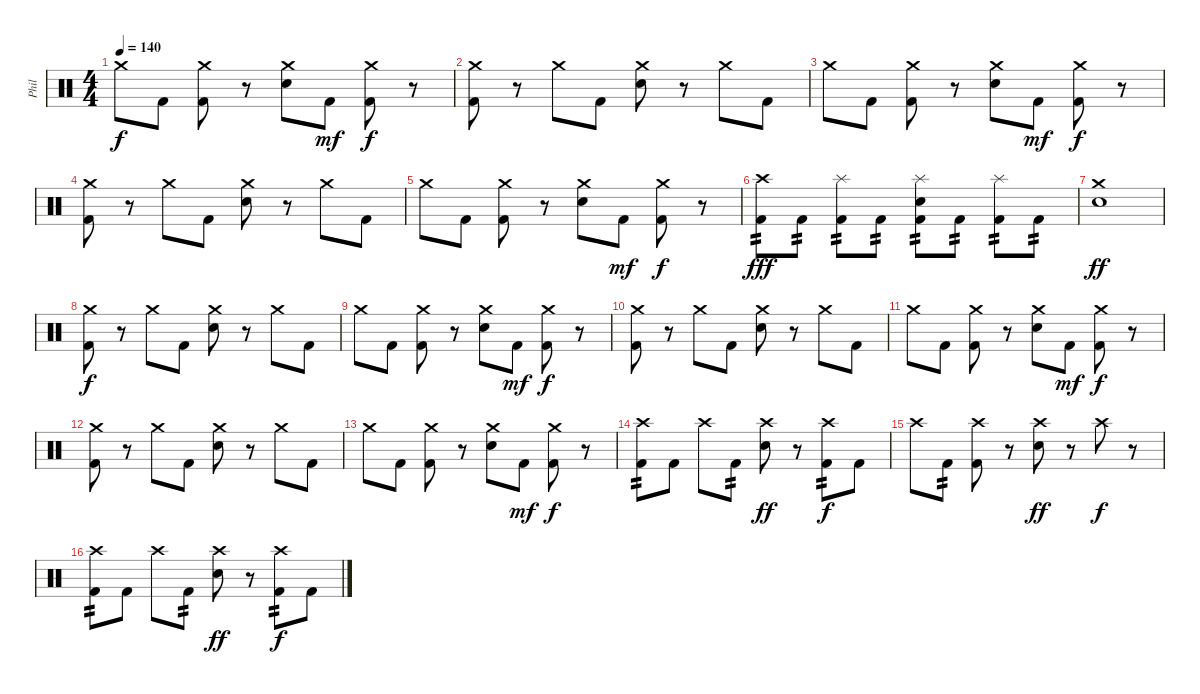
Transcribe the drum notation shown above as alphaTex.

\track ("Phil" "Phil") {instrument percussion}
\staff {score}
\articulation defaults
\ts (4 4)
\tempo 140
\clef neutral
\ks c "Crash medium (hit)".8{dy f} "Kick (hit) 2".8
("Crash medium (hit)" "Kick (hit) 2").8 r.8 ("Crash medium (hit)" "Snare (hit) 2").8 "Kick (hit) 2".8{dy mf} ("Crash medium (hit)" "Kick (hit) 2").8{dy f} r.8 |
("Crash medium (hit)" "Kick (hit) 2").8 r.8 "Crash medium (hit)".8 "Kick (hit) 2".8 ("Crash medium (hit)" "Snare (hit) 2").8 r.8 "Crash medium (hit)".8 "Kick (hit) 2".8 |
"Crash medium (hit)".8 "Kick (hit) 2".8 ("Crash medium (hit)" "Kick (hit) 2").8 r.8 ("Crash medium (hit)" "Snare (hit) 2").8 "Kick (hit) 2".8{dy mf} ("Crash medium (hit)" "Kick (hit) 2").8{dy f} r.8 |
("Crash medium (hit)" "Kick (hit) 2").8 r.8 "Crash medium (hit)".8 "Kick (hit) 2".8 ("Crash medium (hit)" "Snare (hit) 2").8 r.8 "Crash medium (hit)".8 "Kick (hit) 2".8 |
"Crash medium (hit)".8 "Kick (hit) 2".8 ("Crash medium (hit)" "Kick (hit) 2").8 r.8 ("Crash medium (hit)" "Snare (hit) 2").8 "Kick (hit) 2".8{dy mf} ("Crash medium (hit)" "Kick (hit) 2").8{dy f} r.8 |
("Crash high (hit)" "Kick (hit) 2").8{tp 2 dy fff} "Kick (hit) 2".8{tp 2} ("Splash (hit)" "Kick (hit) 2").8{tp 2} "Kick (hit) 2".8{tp 2} ("Splash (hit)" "Snare (hit) 2" "Kick (hit) 2").8{tp 2} "Kick (hit) 2".8{tp 2} ("Splash (hit)" "Kick (hit) 2").8{tp 2} "Kick (hit) 2".8{tp 2} |
("Crash medium (hit)" "Snare (hit) 2").1{dy ff} |
("Crash medium (hit)" "Kick (hit) 2").8{dy f} r.8 "Crash medium (hit)".8 "Kick (hit) 2".8 ("Crash medium (hit)" "Snare (hit) 2").8 r.8 "Crash medium (hit)".8 "Kick (hit) 2".8 |
"Crash medium (hit)".8 "Kick (hit) 2".8 ("Crash medium (hit)" "Kick (hit) 2").8 r.8 ("Crash medium (hit)" "Snare (hit) 2").8 "Kick (hit) 2".8{dy mf} ("Crash medium (hit)" "Kick (hit) 2").8{dy f} r.8 |
("Crash medium (hit)" "Kick (hit) 2").8 r.8 "Crash medium (hit)".8 "Kick (hit) 2".8 ("Crash medium (hit)" "Snare (hit) 2").8 r.8 "Crash medium (hit)".8 "Kick (hit) 2".8 |
"Crash medium (hit)".8 "Kick (hit) 2".8 ("Crash medium (hit)" "Kick (hit) 2").8 r.8 ("Crash medium (hit)" "Snare (hit) 2").8 "Kick (hit) 2".8{dy mf} ("Crash medium (hit)" "Kick (hit) 2").8{dy f} r.8 |
("Crash medium (hit)" "Kick (hit) 2").8 r.8 "Crash medium (hit)".8 "Kick (hit) 2".8 ("Crash medium (hit)" "Snare (hit) 2").8 r.8 "Crash medium (hit)".8 "Kick (hit) 2".8 |
"Crash medium (hit)".8 "Kick (hit) 2".8 ("Crash medium (hit)" "Kick (hit) 2").8 r.8 ("Crash medium (hit)" "Snare (hit) 2").8 "Kick (hit) 2".8{dy mf} ("Crash medium (hit)" "Kick (hit) 2").8{dy f} r.8 |
("Crash high (hit)" "Kick (hit) 2").8{tp 2} "Kick (hit) 2".8 "Crash high (hit)".8 "Kick (hit) 2".8{tp 2} ("Crash high (hit)" "Electric Snare (hit)").8{dy ff} r.8 ("Crash high (hit)" "Kick (hit) 2").8{tp 2 dy f} "Kick (hit) 2".8 |
"Crash high (hit)".8 "Kick (hit) 2".8{tp 2} ("Crash high (hit)" "Kick (hit) 2").8 r.8 ("Crash high (hit)" "Electric Snare (hit)").8{dy ff} r.8 "Crash high (hit)".8{dy f} r.8 |
("Crash high (hit)" "Kick (hit) 2").8{tp 2} "Kick (hit) 2".8 "Crash high (hit)".8 "Kick (hit) 2".8{tp 2} ("Crash high (hit)" "Electric Snare (hit)").8{dy ff} r.8 ("Crash high (hit)" "Kick (hit) 2").8{tp 2 dy f} "Kick (hit) 2".8
